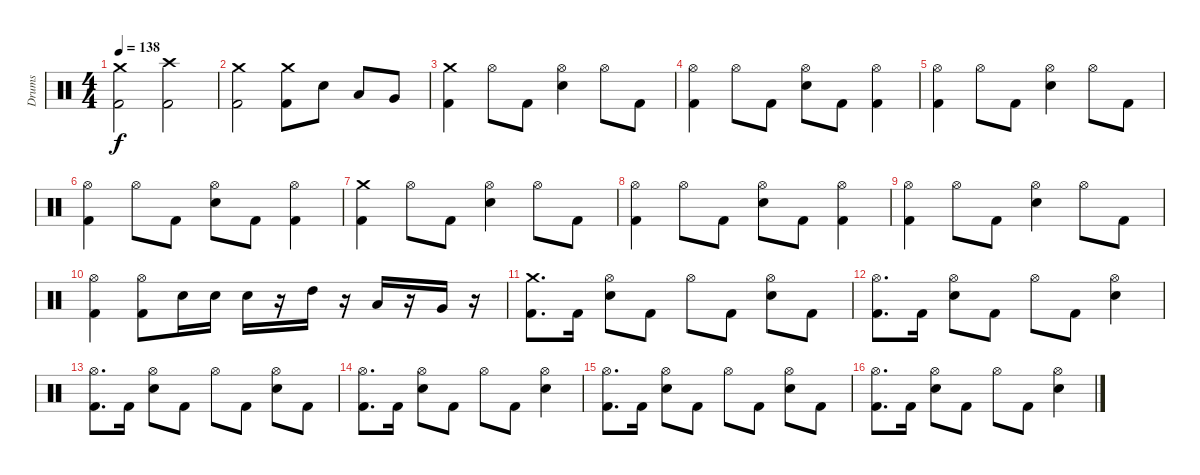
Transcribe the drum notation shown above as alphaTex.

\track ("Drums" "Drums") {instrument percussion}
\staff {score}
\articulation defaults
\ts (4 4)
\tempo 138
\clef neutral
\ks c
("Crash medium (hit)" "Kick (hit) 2").2{dy f} ("Crash high (hit)" "Kick (hit) 2").2 |
("Crash medium (hit)" "Kick (hit) 2").2 ("Crash medium (hit)" "Kick (hit) 2").8 "Electric Snare (hit)".8 "Low Tom (hit)".8 "Very Low Tom (hit)".8 |
("Kick (hit) 2" "Crash medium (hit)").4 "Hi-Hat (open)".8 "Kick (hit) 2".8 ("Electric Snare (hit)" "Hi-Hat (open)").4 "Hi-Hat (open)".8 "Kick (hit) 2".8 |
("Kick (hit) 2" "Hi-Hat (open)").4 "Hi-Hat (open)".8 "Kick (hit) 2".8 ("Electric Snare (hit)" "Hi-Hat (open)").8 "Kick (hit) 2".8 ("Kick (hit) 2" "Hi-Hat (open)").4 |
("Hi-Hat (open)" "Kick (hit) 2").4 "Hi-Hat (open)".8 "Kick (hit) 2".8 ("Electric Snare (hit)" "Hi-Hat (open)").4 "Hi-Hat (open)".8 "Kick (hit) 2".8 |
("Kick (hit) 2" "Hi-Hat (open)").4 "Hi-Hat (open)".8 "Kick (hit) 2".8 ("Electric Snare (hit)" "Hi-Hat (open)").8 "Kick (hit) 2".8 ("Kick (hit) 2" "Hi-Hat (open)").4 |
("Kick (hit) 2" "Crash medium (hit)").4 "Hi-Hat (open)".8 "Kick (hit) 2".8 ("Electric Snare (hit)" "Hi-Hat (open)").4 "Hi-Hat (open)".8 "Kick (hit) 2".8 |
("Kick (hit) 2" "Hi-Hat (open)").4 "Hi-Hat (open)".8 "Kick (hit) 2".8 ("Electric Snare (hit)" "Hi-Hat (open)").8 "Kick (hit) 2".8 ("Kick (hit) 2" "Hi-Hat (open)").4 |
("Hi-Hat (open)" "Kick (hit) 2").4 "Hi-Hat (open)".8 "Kick (hit) 2".8 ("Electric Snare (hit)" "Hi-Hat (open)").4 "Hi-Hat (open)".8 "Kick (hit) 2".8 |
("Kick (hit) 2" "Hi-Hat (open)").4 ("Hi-Hat (open)" "Kick (hit) 2").8 "Electric Snare (hit)".16 "Electric Snare (hit)".16 "Electric Snare (hit)".16 r.16 "High Tom (hit)".16 r.16 "Low Tom (hit)".16 r.16 "Very Low Tom (hit)".16 r.16 |
("Crash medium (hit)" "Kick (hit) 2").8{d} "Kick (hit) 2".16 ("Hi-Hat (open)" "Electric Snare (hit)").8 "Kick (hit) 2".8 "Hi-Hat (open)".8 "Kick (hit) 2".8 ("Hi-Hat (open)" "Electric Snare (hit)").8 "Kick (hit) 2".8 |
("Hi-Hat (open)" "Kick (hit) 2").8{d} "Kick (hit) 2".16 ("Hi-Hat (open)" "Electric Snare (hit)").8 "Kick (hit) 2".8 "Hi-Hat (open)".8 "Kick (hit) 2".8 ("Hi-Hat (open)" "Electric Snare (hit)").4 |
("Hi-Hat (open)" "Kick (hit) 2").8{d} "Kick (hit) 2".16 ("Hi-Hat (open)" "Electric Snare (hit)").8 "Kick (hit) 2".8 "Hi-Hat (open)".8 "Kick (hit) 2".8 ("Hi-Hat (open)" "Electric Snare (hit)").8 "Kick (hit) 2".8 |
("Hi-Hat (open)" "Kick (hit) 2").8{d} "Kick (hit) 2".16 ("Hi-Hat (open)" "Electric Snare (hit)").8 "Kick (hit) 2".8 "Hi-Hat (open)".8 "Kick (hit) 2".8 ("Hi-Hat (open)" "Electric Snare (hit)").4 |
("Hi-Hat (open)" "Kick (hit) 2").8{d} "Kick (hit) 2".16 ("Hi-Hat (open)" "Electric Snare (hit)").8 "Kick (hit) 2".8 "Hi-Hat (open)".8 "Kick (hit) 2".8 ("Hi-Hat (open)" "Electric Snare (hit)").8 "Kick (hit) 2".8 |
("Hi-Hat (open)" "Kick (hit) 2").8{d} "Kick (hit) 2".16 ("Hi-Hat (open)" "Electric Snare (hit)").8 "Kick (hit) 2".8 "Hi-Hat (open)".8 "Kick (hit) 2".8 ("Hi-Hat (open)" "Electric Snare (hit)").4
